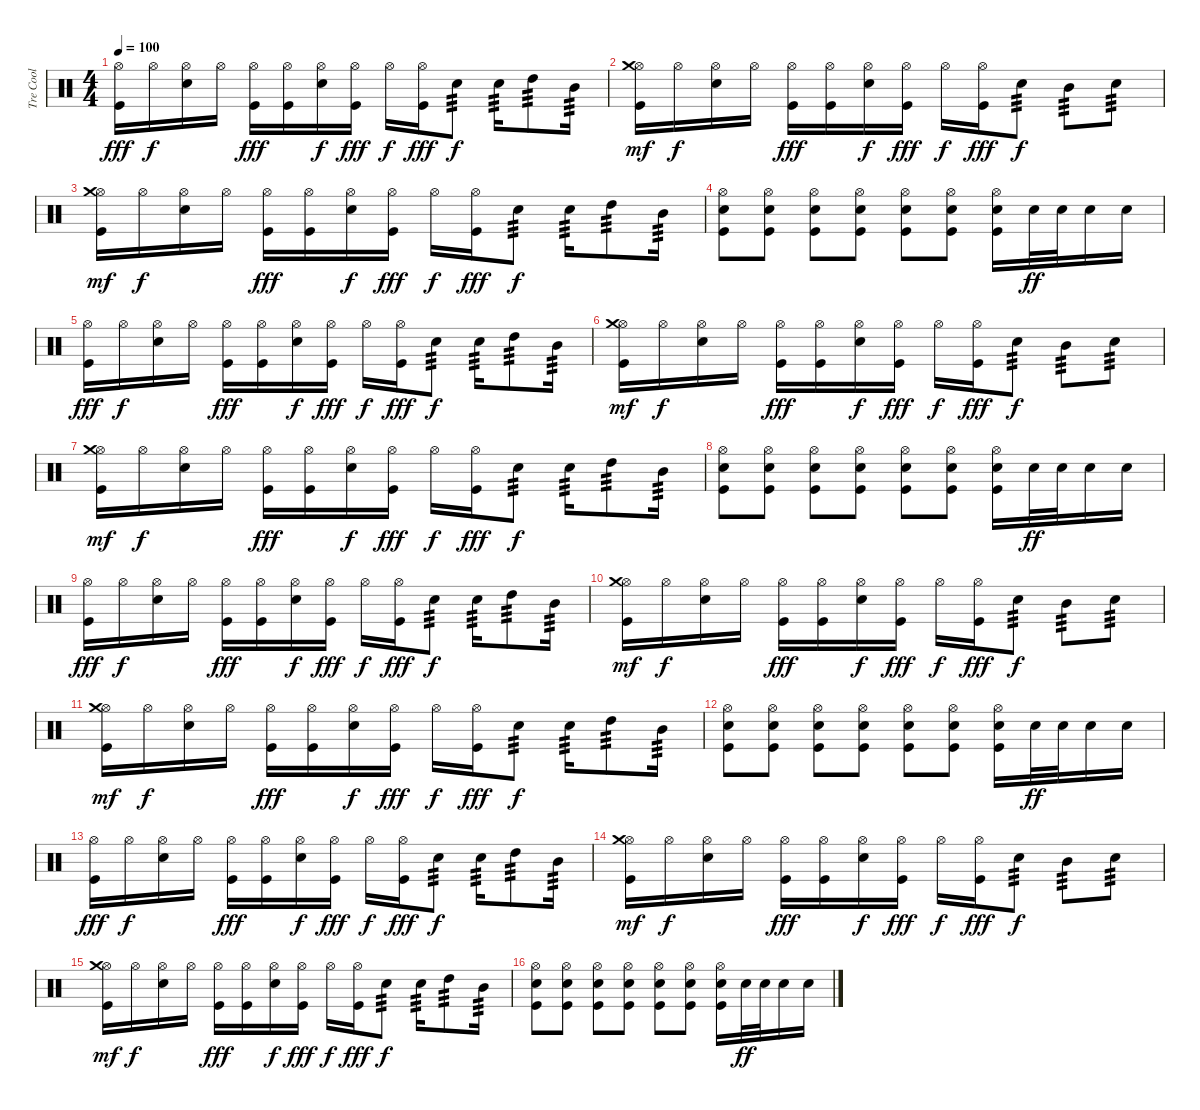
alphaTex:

\track ("Tre Cool" "Tre Cool") {instrument percussion}
\staff {score}
\articulation defaults
\ts (4 4)
\tempo 100
\clef neutral
\ks c
("Hi-Hat (open)" "Kick (hit)").16{dy fff} "Hi-Hat (open)".16{dy f} ("Hi-Hat (open)" "Snare (hit) 2").16 "Hi-Hat (open)".16 ("Hi-Hat (open)" "Kick (hit)").16{dy fff} ("Hi-Hat (open)" "Kick (hit)").16 ("Hi-Hat (open)" "Snare (hit) 2").16{dy f} ("Hi-Hat (open)" "Kick (hit)").16{dy fff} "Hi-Hat (open)".16{dy f} ("Hi-Hat (open)" "Kick (hit)").16{dy fff} "Snare (hit) 2".8{tp 3 dy f} "Snare (hit) 2".16{tp 3} "High Tom (hit)".8{tp 3} "Mid Tom (hit)".16{tp 3} |
("Hi-Hat (open)" "Kick (hit)" "Crash medium (hit)").16{dy mf} "Hi-Hat (open)".16{dy f} ("Hi-Hat (open)" "Snare (hit) 2").16 "Hi-Hat (open)".16 ("Hi-Hat (open)" "Kick (hit)").16{dy fff} ("Hi-Hat (open)" "Kick (hit)").16 ("Hi-Hat (open)" "Snare (hit) 2").16{dy f} ("Hi-Hat (open)" "Kick (hit)").16{dy fff} "Hi-Hat (open)".16{dy f} ("Hi-Hat (open)" "Kick (hit)").16{dy fff} "Snare (hit) 2".8{tp 3 dy f} "Mid Tom (hit)".8{tp 3} "Snare (hit) 2".8{tp 3} |
("Hi-Hat (open)" "Kick (hit)" "Crash medium (hit)").16{dy mf} "Hi-Hat (open)".16{dy f} ("Hi-Hat (open)" "Snare (hit) 2").16 "Hi-Hat (open)".16 ("Hi-Hat (open)" "Kick (hit)").16{dy fff} ("Hi-Hat (open)" "Kick (hit)").16 ("Hi-Hat (open)" "Snare (hit) 2").16{dy f} ("Hi-Hat (open)" "Kick (hit)").16{dy fff} "Hi-Hat (open)".16{dy f} ("Hi-Hat (open)" "Kick (hit)").16{dy fff} "Snare (hit) 2".8{tp 3 dy f} "Snare (hit) 2".16{tp 3} "High Tom (hit)".8{tp 3} "Mid Tom (hit)".16{tp 3} |
("Hi-Hat (open)" "Snare (hit) 2" "Kick (hit)").8 ("Hi-Hat (open)" "Snare (hit) 2" "Kick (hit)").8 ("Hi-Hat (open)" "Snare (hit) 2" "Kick (hit)").8 ("Hi-Hat (open)" "Snare (hit) 2" "Kick (hit)").8 ("Hi-Hat (open)" "Snare (hit) 2" "Kick (hit)").8 ("Hi-Hat (open)" "Snare (hit) 2" "Kick (hit)").8 ("Hi-Hat (open)" "Snare (hit) 2" "Kick (hit)").16 "Snare (hit) 2".32{dy ff} "Snare (hit) 2".32 "Snare (hit) 2".16 "Snare (hit) 2".16 |
("Hi-Hat (open)" "Kick (hit)").16{dy fff} "Hi-Hat (open)".16{dy f} ("Hi-Hat (open)" "Snare (hit) 2").16 "Hi-Hat (open)".16 ("Hi-Hat (open)" "Kick (hit)").16{dy fff} ("Hi-Hat (open)" "Kick (hit)").16 ("Hi-Hat (open)" "Snare (hit) 2").16{dy f} ("Hi-Hat (open)" "Kick (hit)").16{dy fff} "Hi-Hat (open)".16{dy f} ("Hi-Hat (open)" "Kick (hit)").16{dy fff} "Snare (hit) 2".8{tp 3 dy f} "Snare (hit) 2".16{tp 3} "High Tom (hit)".8{tp 3} "Mid Tom (hit)".16{tp 3} |
("Hi-Hat (open)" "Kick (hit)" "Crash medium (hit)").16{dy mf} "Hi-Hat (open)".16{dy f} ("Hi-Hat (open)" "Snare (hit) 2").16 "Hi-Hat (open)".16 ("Hi-Hat (open)" "Kick (hit)").16{dy fff} ("Hi-Hat (open)" "Kick (hit)").16 ("Hi-Hat (open)" "Snare (hit) 2").16{dy f} ("Hi-Hat (open)" "Kick (hit)").16{dy fff} "Hi-Hat (open)".16{dy f} ("Hi-Hat (open)" "Kick (hit)").16{dy fff} "Snare (hit) 2".8{tp 3 dy f} "Mid Tom (hit)".8{tp 3} "Snare (hit) 2".8{tp 3} |
("Hi-Hat (open)" "Kick (hit)" "Crash medium (hit)").16{dy mf} "Hi-Hat (open)".16{dy f} ("Hi-Hat (open)" "Snare (hit) 2").16 "Hi-Hat (open)".16 ("Hi-Hat (open)" "Kick (hit)").16{dy fff} ("Hi-Hat (open)" "Kick (hit)").16 ("Hi-Hat (open)" "Snare (hit) 2").16{dy f} ("Hi-Hat (open)" "Kick (hit)").16{dy fff} "Hi-Hat (open)".16{dy f} ("Hi-Hat (open)" "Kick (hit)").16{dy fff} "Snare (hit) 2".8{tp 3 dy f} "Snare (hit) 2".16{tp 3} "High Tom (hit)".8{tp 3} "Mid Tom (hit)".16{tp 3} |
("Hi-Hat (open)" "Snare (hit) 2" "Kick (hit)").8 ("Hi-Hat (open)" "Snare (hit) 2" "Kick (hit)").8 ("Hi-Hat (open)" "Snare (hit) 2" "Kick (hit)").8 ("Hi-Hat (open)" "Snare (hit) 2" "Kick (hit)").8 ("Hi-Hat (open)" "Snare (hit) 2" "Kick (hit)").8 ("Hi-Hat (open)" "Snare (hit) 2" "Kick (hit)").8 ("Hi-Hat (open)" "Snare (hit) 2" "Kick (hit)").16 "Snare (hit) 2".32{dy ff} "Snare (hit) 2".32 "Snare (hit) 2".16 "Snare (hit) 2".16 |
("Hi-Hat (open)" "Kick (hit)").16{dy fff} "Hi-Hat (open)".16{dy f} ("Hi-Hat (open)" "Snare (hit) 2").16 "Hi-Hat (open)".16 ("Hi-Hat (open)" "Kick (hit)").16{dy fff} ("Hi-Hat (open)" "Kick (hit)").16 ("Hi-Hat (open)" "Snare (hit) 2").16{dy f} ("Hi-Hat (open)" "Kick (hit)").16{dy fff} "Hi-Hat (open)".16{dy f} ("Hi-Hat (open)" "Kick (hit)").16{dy fff} "Snare (hit) 2".8{tp 3 dy f} "Snare (hit) 2".16{tp 3} "High Tom (hit)".8{tp 3} "Mid Tom (hit)".16{tp 3} |
("Hi-Hat (open)" "Kick (hit)" "Crash medium (hit)").16{dy mf} "Hi-Hat (open)".16{dy f} ("Hi-Hat (open)" "Snare (hit) 2").16 "Hi-Hat (open)".16 ("Hi-Hat (open)" "Kick (hit)").16{dy fff} ("Hi-Hat (open)" "Kick (hit)").16 ("Hi-Hat (open)" "Snare (hit) 2").16{dy f} ("Hi-Hat (open)" "Kick (hit)").16{dy fff} "Hi-Hat (open)".16{dy f} ("Hi-Hat (open)" "Kick (hit)").16{dy fff} "Snare (hit) 2".8{tp 3 dy f} "Mid Tom (hit)".8{tp 3} "Snare (hit) 2".8{tp 3} |
("Hi-Hat (open)" "Kick (hit)" "Crash medium (hit)").16{dy mf} "Hi-Hat (open)".16{dy f} ("Hi-Hat (open)" "Snare (hit) 2").16 "Hi-Hat (open)".16 ("Hi-Hat (open)" "Kick (hit)").16{dy fff} ("Hi-Hat (open)" "Kick (hit)").16 ("Hi-Hat (open)" "Snare (hit) 2").16{dy f} ("Hi-Hat (open)" "Kick (hit)").16{dy fff} "Hi-Hat (open)".16{dy f} ("Hi-Hat (open)" "Kick (hit)").16{dy fff} "Snare (hit) 2".8{tp 3 dy f} "Snare (hit) 2".16{tp 3} "High Tom (hit)".8{tp 3} "Mid Tom (hit)".16{tp 3} |
("Hi-Hat (open)" "Snare (hit) 2" "Kick (hit)").8 ("Hi-Hat (open)" "Snare (hit) 2" "Kick (hit)").8 ("Hi-Hat (open)" "Snare (hit) 2" "Kick (hit)").8 ("Hi-Hat (open)" "Snare (hit) 2" "Kick (hit)").8 ("Hi-Hat (open)" "Snare (hit) 2" "Kick (hit)").8 ("Hi-Hat (open)" "Snare (hit) 2" "Kick (hit)").8 ("Hi-Hat (open)" "Snare (hit) 2" "Kick (hit)").16 "Snare (hit) 2".32{dy ff} "Snare (hit) 2".32 "Snare (hit) 2".16 "Snare (hit) 2".16 |
("Hi-Hat (open)" "Kick (hit)").16{dy fff} "Hi-Hat (open)".16{dy f} ("Hi-Hat (open)" "Snare (hit) 2").16 "Hi-Hat (open)".16 ("Hi-Hat (open)" "Kick (hit)").16{dy fff} ("Hi-Hat (open)" "Kick (hit)").16 ("Hi-Hat (open)" "Snare (hit) 2").16{dy f} ("Hi-Hat (open)" "Kick (hit)").16{dy fff} "Hi-Hat (open)".16{dy f} ("Hi-Hat (open)" "Kick (hit)").16{dy fff} "Snare (hit) 2".8{tp 3 dy f} "Snare (hit) 2".16{tp 3} "High Tom (hit)".8{tp 3} "Mid Tom (hit)".16{tp 3} |
("Hi-Hat (open)" "Kick (hit)" "Crash medium (hit)").16{dy mf} "Hi-Hat (open)".16{dy f} ("Hi-Hat (open)" "Snare (hit) 2").16 "Hi-Hat (open)".16 ("Hi-Hat (open)" "Kick (hit)").16{dy fff} ("Hi-Hat (open)" "Kick (hit)").16 ("Hi-Hat (open)" "Snare (hit) 2").16{dy f} ("Hi-Hat (open)" "Kick (hit)").16{dy fff} "Hi-Hat (open)".16{dy f} ("Hi-Hat (open)" "Kick (hit)").16{dy fff} "Snare (hit) 2".8{tp 3 dy f} "Mid Tom (hit)".8{tp 3} "Snare (hit) 2".8{tp 3} |
("Hi-Hat (open)" "Kick (hit)" "Crash medium (hit)").16{dy mf} "Hi-Hat (open)".16{dy f} ("Hi-Hat (open)" "Snare (hit) 2").16 "Hi-Hat (open)".16 ("Hi-Hat (open)" "Kick (hit)").16{dy fff} ("Hi-Hat (open)" "Kick (hit)").16 ("Hi-Hat (open)" "Snare (hit) 2").16{dy f} ("Hi-Hat (open)" "Kick (hit)").16{dy fff} "Hi-Hat (open)".16{dy f} ("Hi-Hat (open)" "Kick (hit)").16{dy fff} "Snare (hit) 2".8{tp 3 dy f} "Snare (hit) 2".16{tp 3} "High Tom (hit)".8{tp 3} "Mid Tom (hit)".16{tp 3} |
("Hi-Hat (open)" "Snare (hit) 2" "Kick (hit)").8 ("Hi-Hat (open)" "Snare (hit) 2" "Kick (hit)").8 ("Hi-Hat (open)" "Snare (hit) 2" "Kick (hit)").8 ("Hi-Hat (open)" "Snare (hit) 2" "Kick (hit)").8 ("Hi-Hat (open)" "Snare (hit) 2" "Kick (hit)").8 ("Hi-Hat (open)" "Snare (hit) 2" "Kick (hit)").8 ("Hi-Hat (open)" "Snare (hit) 2" "Kick (hit)").16 "Snare (hit) 2".32{dy ff} "Snare (hit) 2".32 "Snare (hit) 2".16 "Snare (hit) 2".16
